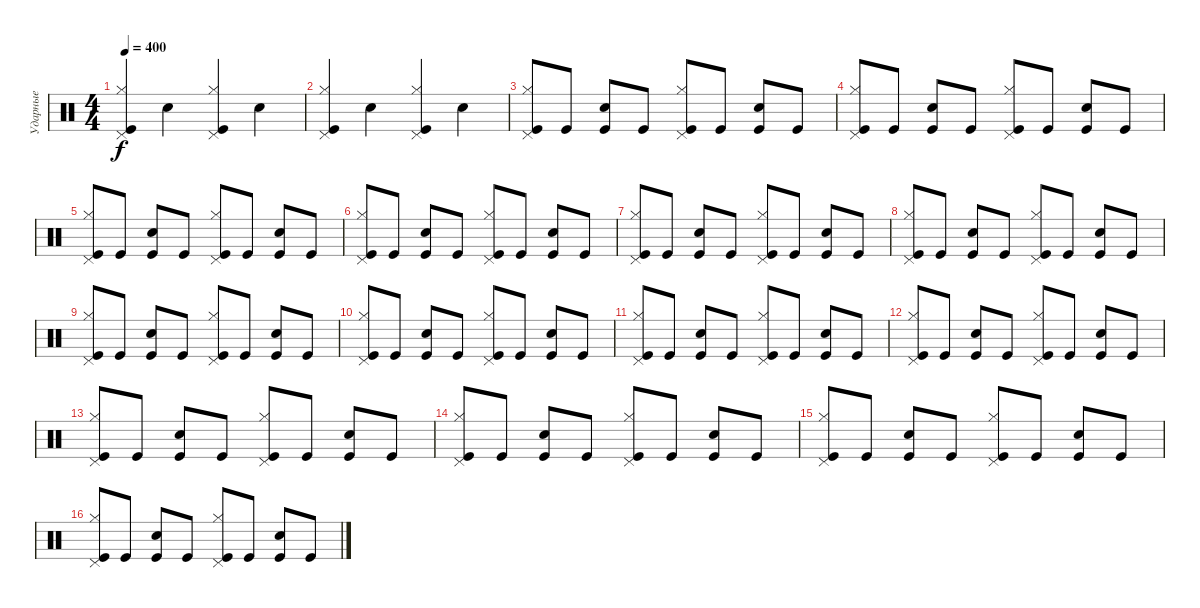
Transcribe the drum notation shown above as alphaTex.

\track ("Ударные" "Ударные") {instrument percussion}
\staff {score}
\articulation defaults
\ts (4 4)
\tempo 400
\clef neutral
\ks c
("Kick (hit)" "Hi-Hat (closed)" "Pedal Hi-Hat (hit)").4{dy f} "Electric Snare (hit)".4 ("Kick (hit)" "Pedal Hi-Hat (hit)" "Hi-Hat (closed)").4 "Electric Snare (hit)".4 |
("Kick (hit)" "Hi-Hat (closed)" "Pedal Hi-Hat (hit)").4 "Electric Snare (hit)".4 ("Kick (hit)" "Pedal Hi-Hat (hit)" "Hi-Hat (closed)").4 "Electric Snare (hit)".4 |
("Kick (hit)" "Pedal Hi-Hat (hit)" "Hi-Hat (closed)").8 "Kick (hit)".8 ("Kick (hit)" "Electric Snare (hit)").8 "Kick (hit)".8 ("Kick (hit)" "Hi-Hat (closed)" "Pedal Hi-Hat (hit)").8 "Kick (hit)".8 ("Kick (hit)" "Electric Snare (hit)").8 "Kick (hit)".8 |
("Kick (hit)" "Pedal Hi-Hat (hit)" "Hi-Hat (closed)").8 "Kick (hit)".8 ("Kick (hit)" "Electric Snare (hit)").8 "Kick (hit)".8 ("Kick (hit)" "Hi-Hat (closed)" "Pedal Hi-Hat (hit)").8 "Kick (hit)".8 ("Kick (hit)" "Electric Snare (hit)").8 "Kick (hit)".8 |
("Kick (hit)" "Pedal Hi-Hat (hit)" "Hi-Hat (closed)").8 "Kick (hit)".8 ("Kick (hit)" "Electric Snare (hit)").8 "Kick (hit)".8 ("Kick (hit)" "Hi-Hat (closed)" "Pedal Hi-Hat (hit)").8 "Kick (hit)".8 ("Kick (hit)" "Electric Snare (hit)").8 "Kick (hit)".8 |
("Kick (hit)" "Pedal Hi-Hat (hit)" "Hi-Hat (closed)").8 "Kick (hit)".8 ("Kick (hit)" "Electric Snare (hit)").8 "Kick (hit)".8 ("Kick (hit)" "Hi-Hat (closed)" "Pedal Hi-Hat (hit)").8 "Kick (hit)".8 ("Kick (hit)" "Electric Snare (hit)").8 "Kick (hit)".8 |
("Kick (hit)" "Pedal Hi-Hat (hit)" "Hi-Hat (closed)").8 "Kick (hit)".8 ("Kick (hit)" "Electric Snare (hit)").8 "Kick (hit)".8 ("Kick (hit)" "Hi-Hat (closed)" "Pedal Hi-Hat (hit)").8 "Kick (hit)".8 ("Kick (hit)" "Electric Snare (hit)").8 "Kick (hit)".8 |
("Kick (hit)" "Pedal Hi-Hat (hit)" "Hi-Hat (closed)").8 "Kick (hit)".8 ("Kick (hit)" "Electric Snare (hit)").8 "Kick (hit)".8 ("Kick (hit)" "Hi-Hat (closed)" "Pedal Hi-Hat (hit)").8 "Kick (hit)".8 ("Kick (hit)" "Electric Snare (hit)").8 "Kick (hit)".8 |
("Kick (hit)" "Pedal Hi-Hat (hit)" "Hi-Hat (closed)").8 "Kick (hit)".8 ("Kick (hit)" "Electric Snare (hit)").8 "Kick (hit)".8 ("Kick (hit)" "Hi-Hat (closed)" "Pedal Hi-Hat (hit)").8 "Kick (hit)".8 ("Kick (hit)" "Electric Snare (hit)").8 "Kick (hit)".8 |
("Kick (hit)" "Pedal Hi-Hat (hit)" "Hi-Hat (closed)").8 "Kick (hit)".8 ("Kick (hit)" "Electric Snare (hit)").8 "Kick (hit)".8 ("Kick (hit)" "Hi-Hat (closed)" "Pedal Hi-Hat (hit)").8 "Kick (hit)".8 ("Kick (hit)" "Electric Snare (hit)").8 "Kick (hit)".8 |
("Kick (hit)" "Pedal Hi-Hat (hit)" "Hi-Hat (closed)").8 "Kick (hit)".8 ("Kick (hit)" "Electric Snare (hit)").8 "Kick (hit)".8 ("Kick (hit)" "Hi-Hat (closed)" "Pedal Hi-Hat (hit)").8 "Kick (hit)".8 ("Kick (hit)" "Electric Snare (hit)").8 "Kick (hit)".8 |
("Kick (hit)" "Pedal Hi-Hat (hit)" "Hi-Hat (closed)").8 "Kick (hit)".8 ("Kick (hit)" "Electric Snare (hit)").8 "Kick (hit)".8 ("Kick (hit)" "Hi-Hat (closed)" "Pedal Hi-Hat (hit)").8 "Kick (hit)".8 ("Kick (hit)" "Electric Snare (hit)").8 "Kick (hit)".8 |
("Kick (hit)" "Pedal Hi-Hat (hit)" "Hi-Hat (closed)").8 "Kick (hit)".8 ("Kick (hit)" "Electric Snare (hit)").8 "Kick (hit)".8 ("Kick (hit)" "Hi-Hat (closed)" "Pedal Hi-Hat (hit)").8 "Kick (hit)".8 ("Kick (hit)" "Electric Snare (hit)").8 "Kick (hit)".8 |
("Kick (hit)" "Pedal Hi-Hat (hit)" "Hi-Hat (closed)").8 "Kick (hit)".8 ("Kick (hit)" "Electric Snare (hit)").8 "Kick (hit)".8 ("Kick (hit)" "Hi-Hat (closed)" "Pedal Hi-Hat (hit)").8 "Kick (hit)".8 ("Kick (hit)" "Electric Snare (hit)").8 "Kick (hit)".8 |
("Kick (hit)" "Pedal Hi-Hat (hit)" "Hi-Hat (closed)").8 "Kick (hit)".8 ("Kick (hit)" "Electric Snare (hit)").8 "Kick (hit)".8 ("Kick (hit)" "Hi-Hat (closed)" "Pedal Hi-Hat (hit)").8 "Kick (hit)".8 ("Kick (hit)" "Electric Snare (hit)").8 "Kick (hit)".8 |
("Kick (hit)" "Pedal Hi-Hat (hit)" "Hi-Hat (closed)").8 "Kick (hit)".8 ("Kick (hit)" "Electric Snare (hit)").8 "Kick (hit)".8 ("Kick (hit)" "Hi-Hat (closed)" "Pedal Hi-Hat (hit)").8 "Kick (hit)".8 ("Kick (hit)" "Electric Snare (hit)").8 "Kick (hit)".8
